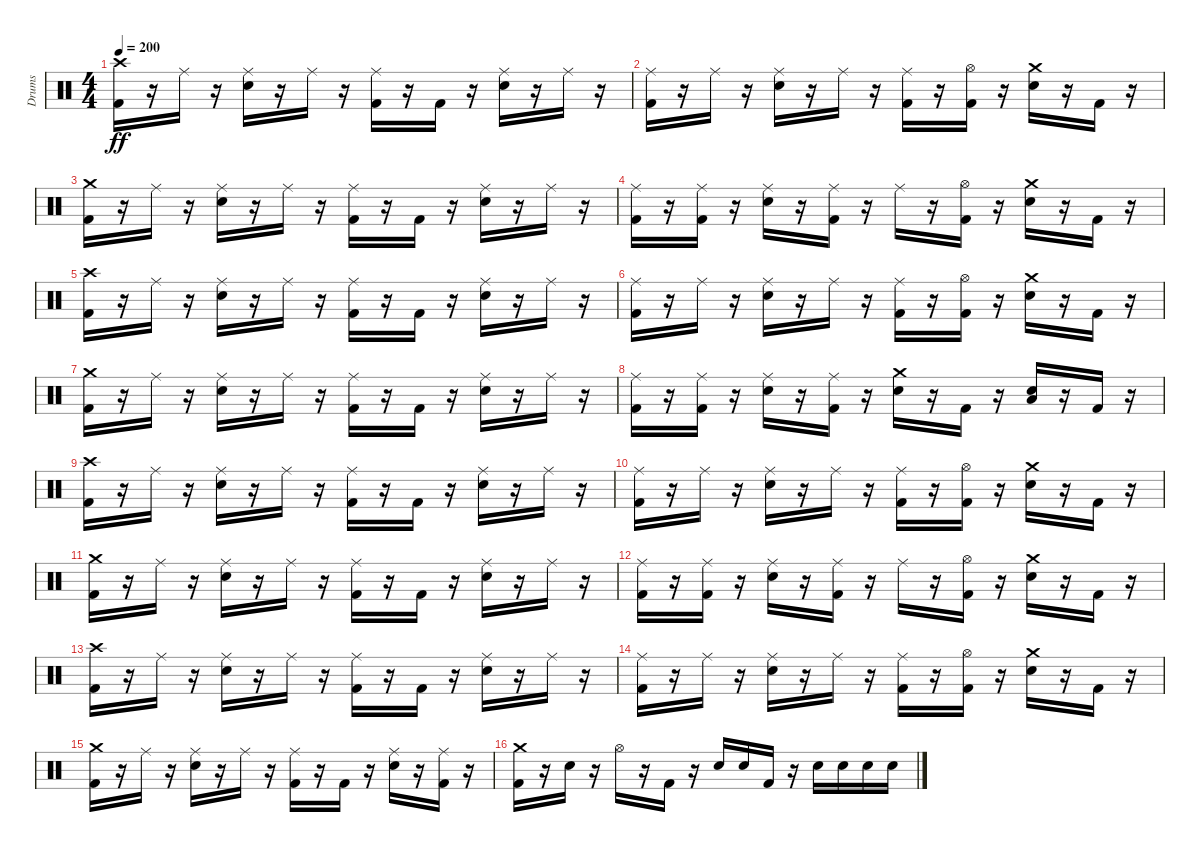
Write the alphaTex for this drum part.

\track ("Drums" "Drums") {instrument percussion}
\staff {score}
\articulation defaults
\ts (4 4)
\tempo 200
\clef neutral
\ks c
("Kick (hit) 2" "Crash high (hit)").16{dy ff} r.16 "Ride (middle)".16 r.16 ("Snare (hit) 2" "Ride (middle)").16 r.16 "Ride (middle)".16 r.16 ("Kick (hit) 2" "Ride (middle)").16 r.16 "Kick (hit) 2".16 r.16 ("Snare (hit) 2" "Ride (middle)").16 r.16 "Ride (middle)".16 r.16 |
("Kick (hit) 2" "Ride (middle)").16 r.16 "Ride (middle)".16 r.16 ("Snare (hit) 2" "Ride (middle)").16 r.16 "Ride (middle)".16 r.16 ("Kick (hit) 2" "Ride (middle)").16 r.16 ("Kick (hit) 2" "Hi-Hat (open)").16 r.16 ("Snare (hit) 2" "Crash medium (hit)").16 r.16 "Kick (hit) 2".16 r.16 |
("Kick (hit) 2" "Crash medium (hit)").16 r.16 "Ride (middle)".16 r.16 ("Snare (hit) 2" "Ride (middle)").16 r.16 "Ride (middle)".16 r.16 ("Kick (hit) 2" "Ride (middle)").16 r.16 "Kick (hit) 2".16 r.16 ("Snare (hit) 2" "Ride (middle)").16 r.16 "Ride (middle)".16 r.16 |
("Kick (hit) 2" "Ride (middle)").16 r.16 ("Kick (hit) 2" "Ride (middle)").16 r.16 ("Snare (hit) 2" "Ride (middle)").16 r.16 ("Kick (hit) 2" "Ride (middle)").16 r.16 "Ride (middle)".16 r.16 ("Kick (hit) 2" "Hi-Hat (open)").16 r.16 ("Snare (hit) 2" "Crash medium (hit)").16 r.16 "Kick (hit) 2".16 r.16 |
("Kick (hit) 2" "Crash high (hit)").16 r.16 "Ride (middle)".16 r.16 ("Snare (hit) 2" "Ride (middle)").16 r.16 "Ride (middle)".16 r.16 ("Kick (hit) 2" "Ride (middle)").16 r.16 "Kick (hit) 2".16 r.16 ("Snare (hit) 2" "Ride (middle)").16 r.16 "Ride (middle)".16 r.16 |
("Kick (hit) 2" "Ride (middle)").16 r.16 "Ride (middle)".16 r.16 ("Snare (hit) 2" "Ride (middle)").16 r.16 "Ride (middle)".16 r.16 ("Kick (hit) 2" "Ride (middle)").16 r.16 ("Kick (hit) 2" "Hi-Hat (open)").16 r.16 ("Snare (hit) 2" "Crash medium (hit)").16 r.16 "Kick (hit) 2".16 r.16 |
("Kick (hit) 2" "Crash medium (hit)").16 r.16 "Ride (middle)".16 r.16 ("Snare (hit) 2" "Ride (middle)").16 r.16 "Ride (middle)".16 r.16 ("Kick (hit) 2" "Ride (middle)").16 r.16 "Kick (hit) 2".16 r.16 ("Snare (hit) 2" "Ride (middle)").16 r.16 "Ride (middle)".16 r.16 |
("Kick (hit) 2" "Ride (middle)").16 r.16 ("Kick (hit) 2" "Ride (middle)").16 r.16 ("Snare (hit) 2" "Ride (middle)").16 r.16 ("Kick (hit) 2" "Ride (middle)").16 r.16 ("Snare (hit) 2" "Crash medium (hit)").16 r.16 "Kick (hit) 2".16 r.16 ("Snare (hit) 2" "Low Tom (hit)").16 r.16 "Kick (hit) 2".16 r.16 |
("Kick (hit) 2" "Crash high (hit)").16 r.16 "Ride (middle)".16 r.16 ("Snare (hit) 2" "Ride (middle)").16 r.16 "Ride (middle)".16 r.16 ("Kick (hit) 2" "Ride (middle)").16 r.16 "Kick (hit) 2".16 r.16 ("Snare (hit) 2" "Ride (middle)").16 r.16 "Ride (middle)".16 r.16 |
("Kick (hit) 2" "Ride (middle)").16 r.16 "Ride (middle)".16 r.16 ("Snare (hit) 2" "Ride (middle)").16 r.16 "Ride (middle)".16 r.16 ("Kick (hit) 2" "Ride (middle)").16 r.16 ("Kick (hit) 2" "Hi-Hat (open)").16 r.16 ("Snare (hit) 2" "Crash medium (hit)").16 r.16 "Kick (hit) 2".16 r.16 |
("Kick (hit) 2" "Crash medium (hit)").16 r.16 "Ride (middle)".16 r.16 ("Snare (hit) 2" "Ride (middle)").16 r.16 "Ride (middle)".16 r.16 ("Kick (hit) 2" "Ride (middle)").16 r.16 "Kick (hit) 2".16 r.16 ("Snare (hit) 2" "Ride (middle)").16 r.16 "Ride (middle)".16 r.16 |
("Kick (hit) 2" "Ride (middle)").16 r.16 ("Kick (hit) 2" "Ride (middle)").16 r.16 ("Snare (hit) 2" "Ride (middle)").16 r.16 ("Kick (hit) 2" "Ride (middle)").16 r.16 "Ride (middle)".16 r.16 ("Kick (hit) 2" "Hi-Hat (open)").16 r.16 ("Snare (hit) 2" "Crash medium (hit)").16 r.16 "Kick (hit) 2".16 r.16 |
("Kick (hit) 2" "Crash high (hit)").16 r.16 "Ride (middle)".16 r.16 ("Snare (hit) 2" "Ride (middle)").16 r.16 "Ride (middle)".16 r.16 ("Kick (hit) 2" "Ride (middle)").16 r.16 "Kick (hit) 2".16 r.16 ("Snare (hit) 2" "Ride (middle)").16 r.16 "Ride (middle)".16 r.16 |
("Kick (hit) 2" "Ride (middle)").16 r.16 "Ride (middle)".16 r.16 ("Snare (hit) 2" "Ride (middle)").16 r.16 "Ride (middle)".16 r.16 ("Kick (hit) 2" "Ride (middle)").16 r.16 ("Kick (hit) 2" "Hi-Hat (open)").16 r.16 ("Snare (hit) 2" "Crash medium (hit)").16 r.16 "Kick (hit) 2".16 r.16 |
("Kick (hit) 2" "Crash medium (hit)").16 r.16 "Ride (middle)".16 r.16 ("Snare (hit) 2" "Ride (middle)").16 r.16 "Ride (middle)".16 r.16 ("Kick (hit) 2" "Ride (middle)").16 r.16 "Kick (hit) 2".16 r.16 ("Snare (hit) 2" "Ride (middle)").16 r.16 ("Kick (hit) 2" "Ride (middle)").16 r.16 |
("Kick (hit) 2" "Crash medium (hit)").16 r.16 "Snare (hit) 2".16 r.16 "Hi-Hat (open)".16 r.16 "Kick (hit) 2".16 r.16 "Snare (hit) 2".16 "Snare (hit) 2".16 "Kick (hit) 2".16 r.16 "Snare (hit) 2".16 "Snare (hit) 2".16 "Snare (hit) 2".16 "Snare (hit) 2".16
